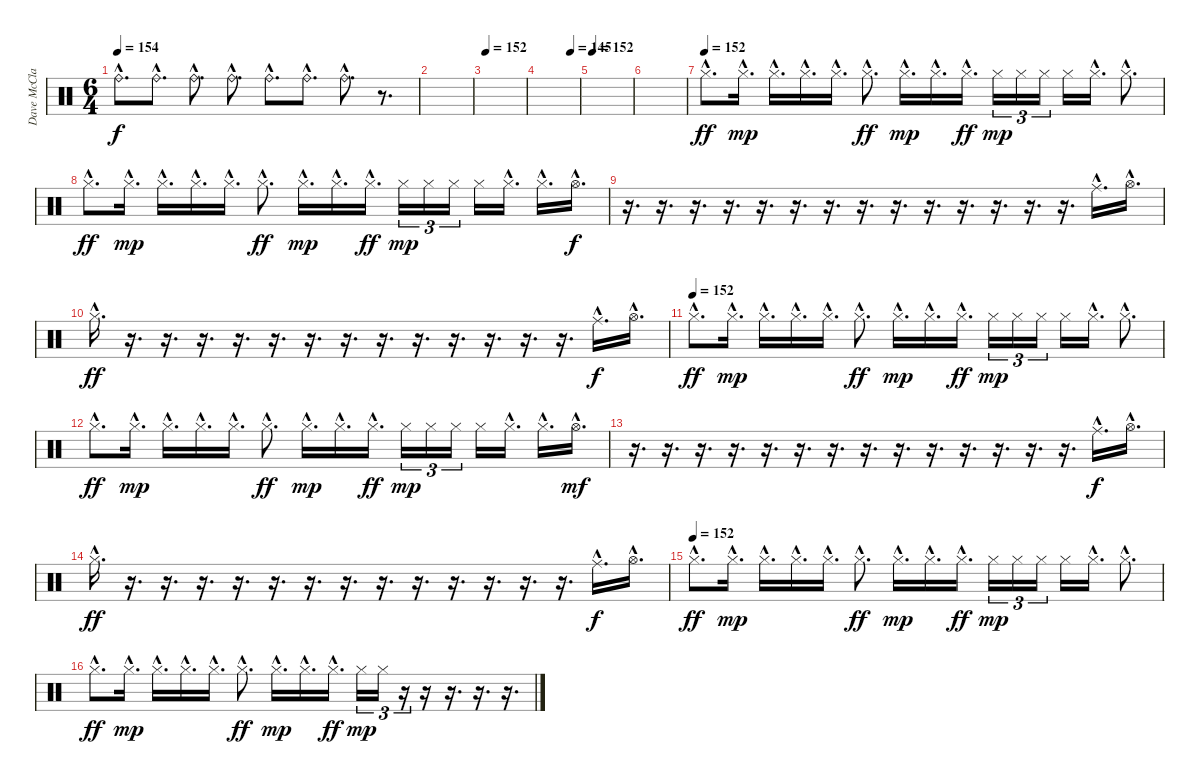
\track ("Dave McClain" "Dave McCla") {instrument percussion}
\staff {score}
\articulation defaults
\ts (6 4)
\tempo 154
\clef neutral
\ks c "Ride (bell)"{hac}.8{d dy f} "Ride (bell)"{hac}.8{d} "Ride (bell)"{hac}.8{d} "Ride (bell)"{hac}.8{d} "Ride (bell)"{hac}.8{d} "Ride (bell)"{hac}.8{d} "Ride (bell)"{hac}.8{d}
r.8{d} |
|
\tempo 152
|
\tempo (145 0.7916666666666666)
|
\tempo 152
|
|
\tempo (152)
"Hi-Hat (closed)"{hac}.8{d dy ff} "Hi-Hat (closed)"{hac}.16{d dy mp} "Hi-Hat (closed)"{hac}.16{d} "Hi-Hat (closed)"{hac}.16{d} "Hi-Hat (closed)"{hac}.16{d} "Hi-Hat (closed)"{hac}.8{d dy ff} "Hi-Hat (closed)"{hac}.16{d dy mp} "Hi-Hat (closed)"{hac}.16{d} "Hi-Hat (closed)"{hac}.16{d dy ff} "Hi-Hat (closed)".16{tu (3 2) dy mp} "Hi-Hat (closed)".16{tu (3 2)} "Hi-Hat (closed)".16{tu (3 2)} "Hi-Hat (closed)".16 "Hi-Hat (closed)"{hac}.16{d} "Hi-Hat (closed)"{hac}.8{d} |
"Hi-Hat (closed)"{hac}.8{d dy ff} "Hi-Hat (closed)"{hac}.16{d dy mp} "Hi-Hat (closed)"{hac}.16{d} "Hi-Hat (closed)"{hac}.16{d} "Hi-Hat (closed)"{hac}.16{d} "Hi-Hat (closed)"{hac}.8{d dy ff} "Hi-Hat (closed)"{hac}.16{d dy mp} "Hi-Hat (closed)"{hac}.16{d} "Hi-Hat (closed)"{hac}.16{d dy ff} "Hi-Hat (closed)".16{tu (3 2) dy mp} "Hi-Hat (closed)".16{tu (3 2)} "Hi-Hat (closed)".16{tu (3 2)} "Hi-Hat (closed)".16 "Hi-Hat (closed)"{hac}.16{d} "Hi-Hat (closed)"{hac}.16{d} "Hi-Hat (open)"{hac}.16{d dy f} |
r.16{d} r.16{d} r.16{d} r.16{d} r.16{d} r.16{d} r.16{d} r.16{d} r.16{d} r.16{d} r.16{d} r.16{d} r.16{d} r.16{d} "Ride (middle)"{hac}.16{d} "Hi-Hat (open)"{hac}.16{d} |
"Hi-Hat (closed)"{hac}.16{d dy ff} r.16{d} r.16{d} r.16{d} r.16{d} r.16{d} r.16{d} r.16{d} r.16{d} r.16{d} r.16{d} r.16{d} r.16{d} r.16{d} "Ride (middle)"{hac}.16{d dy f} "Hi-Hat (open)"{hac}.16{d} |
\tempo (152)
"Hi-Hat (closed)"{hac}.8{d dy ff} "Hi-Hat (closed)"{hac}.16{d dy mp} "Hi-Hat (closed)"{hac}.16{d} "Hi-Hat (closed)"{hac}.16{d} "Hi-Hat (closed)"{hac}.16{d} "Hi-Hat (closed)"{hac}.8{d dy ff} "Hi-Hat (closed)"{hac}.16{d dy mp} "Hi-Hat (closed)"{hac}.16{d} "Hi-Hat (closed)"{hac}.16{d dy ff} "Hi-Hat (closed)".16{tu (3 2) dy mp} "Hi-Hat (closed)".16{tu (3 2)} "Hi-Hat (closed)".16{tu (3 2)} "Hi-Hat (closed)".16 "Hi-Hat (closed)"{hac}.16{d} "Hi-Hat (closed)"{hac}.8{d} |
"Hi-Hat (closed)"{hac}.8{d dy ff} "Hi-Hat (closed)"{hac}.16{d dy mp} "Hi-Hat (closed)"{hac}.16{d} "Hi-Hat (closed)"{hac}.16{d} "Hi-Hat (closed)"{hac}.16{d} "Hi-Hat (closed)"{hac}.8{d dy ff} "Hi-Hat (closed)"{hac}.16{d dy mp} "Hi-Hat (closed)"{hac}.16{d} "Hi-Hat (closed)"{hac}.16{d dy ff} "Hi-Hat (closed)".16{tu (3 2) dy mp} "Hi-Hat (closed)".16{tu (3 2)} "Hi-Hat (closed)".16{tu (3 2)} "Hi-Hat (closed)".16 "Hi-Hat (closed)"{hac}.16{d} "Hi-Hat (closed)"{hac}.16{d} "Hi-Hat (open)"{hac}.16{d dy mf} |
r.16{d} r.16{d} r.16{d} r.16{d} r.16{d} r.16{d} r.16{d} r.16{d} r.16{d} r.16{d} r.16{d} r.16{d} r.16{d} r.16{d} "Ride (middle)"{hac}.16{d dy f} "Hi-Hat (open)"{hac}.16{d} |
"Hi-Hat (closed)"{hac}.16{d dy ff} r.16{d} r.16{d} r.16{d} r.16{d} r.16{d} r.16{d} r.16{d} r.16{d} r.16{d} r.16{d} r.16{d} r.16{d} r.16{d} "Ride (middle)"{hac}.16{d dy f} "Hi-Hat (open)"{hac}.16{d} |
\tempo (152)
"Hi-Hat (closed)"{hac}.8{d dy ff} "Hi-Hat (closed)"{hac}.16{d dy mp} "Hi-Hat (closed)"{hac}.16{d} "Hi-Hat (closed)"{hac}.16{d} "Hi-Hat (closed)"{hac}.16{d} "Hi-Hat (closed)"{hac}.8{d dy ff} "Hi-Hat (closed)"{hac}.16{d dy mp} "Hi-Hat (closed)"{hac}.16{d} "Hi-Hat (closed)"{hac}.16{d dy ff} "Hi-Hat (closed)".16{tu (3 2) dy mp} "Hi-Hat (closed)".16{tu (3 2)} "Hi-Hat (closed)".16{tu (3 2)} "Hi-Hat (closed)".16 "Hi-Hat (closed)"{hac}.16{d} "Hi-Hat (closed)"{hac}.8{d} |
"Hi-Hat (closed)"{hac}.8{d dy ff} "Hi-Hat (closed)"{hac}.16{d dy mp} "Hi-Hat (closed)"{hac}.16{d} "Hi-Hat (closed)"{hac}.16{d} "Hi-Hat (closed)"{hac}.16{d} "Hi-Hat (closed)"{hac}.8{d dy ff} "Hi-Hat (closed)"{hac}.16{d dy mp} "Hi-Hat (closed)"{hac}.16{d} "Hi-Hat (closed)"{hac}.16{d dy ff} "Hi-Hat (closed)".16{tu (3 2) dy mp} "Hi-Hat (closed)".16{tu (3 2)} r.16{tu (3 2)} r.16 r.16{d} r.16{d} r.16{d}
